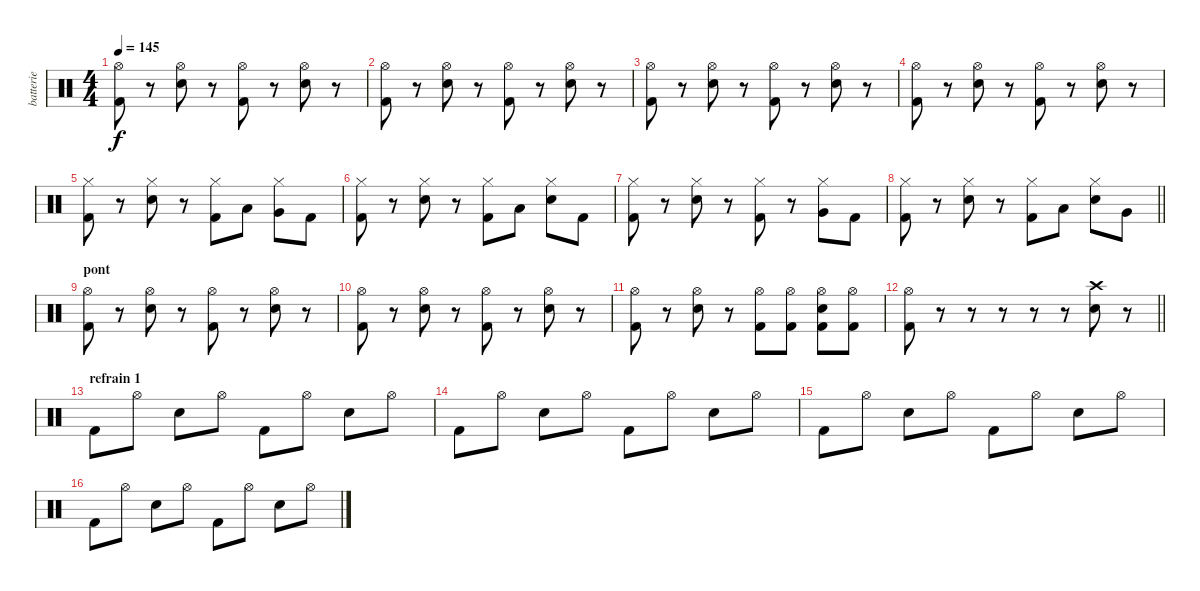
\track ("batterie" "batterie") {instrument percussion}
\staff {score}
\articulation defaults
\ts (4 4)
\tempo 145
\clef neutral
\ks c
("Hi-Hat (open)" "Kick (hit) 2").8{dy f} r.8 ("Hi-Hat (open)" "Electric Snare (hit)").8 r.8 ("Hi-Hat (open)" "Kick (hit) 2").8 r.8 ("Hi-Hat (open)" "Electric Snare (hit)").8 r.8 |
("Hi-Hat (open)" "Kick (hit) 2").8 r.8 ("Hi-Hat (open)" "Electric Snare (hit)").8 r.8 ("Hi-Hat (open)" "Kick (hit) 2").8 r.8 ("Hi-Hat (open)" "Electric Snare (hit)").8 r.8 |
("Hi-Hat (open)" "Kick (hit) 2").8 r.8 ("Hi-Hat (open)" "Electric Snare (hit)").8 r.8 ("Hi-Hat (open)" "Kick (hit) 2").8 r.8 ("Hi-Hat (open)" "Electric Snare (hit)").8 r.8 |
("Hi-Hat (open)" "Kick (hit) 2").8 r.8 ("Hi-Hat (open)" "Electric Snare (hit)").8 r.8 ("Hi-Hat (open)" "Kick (hit) 2").8 r.8 ("Hi-Hat (open)" "Electric Snare (hit)").8 r.8 |
("Hi-Hat (closed)" "Kick (hit) 2").8 r.8 ("Hi-Hat (closed)" "Electric Snare (hit)").8 r.8 ("Hi-Hat (closed)" "Kick (hit) 2").8 "Low Tom (hit)".8 ("Hi-Hat (closed)" "Very Low Tom (hit)").8 "Kick (hit) 2".8 |
("Hi-Hat (closed)" "Kick (hit) 2").8 r.8 ("Hi-Hat (closed)" "Electric Snare (hit)").8 r.8 ("Hi-Hat (closed)" "Kick (hit) 2").8 "Low Tom (hit)".8 ("Hi-Hat (closed)" "Electric Snare (hit)").8 "Kick (hit) 2".8 |
("Hi-Hat (closed)" "Kick (hit) 2").8 r.8 ("Hi-Hat (closed)" "Electric Snare (hit)").8 r.8 ("Hi-Hat (closed)" "Kick (hit) 2").8 r.8 ("Hi-Hat (closed)" "Very Low Tom (hit)").8 "Kick (hit) 2".8 |
\barLineRight lightlight
("Hi-Hat (closed)" "Kick (hit) 2").8 r.8 ("Hi-Hat (closed)" "Electric Snare (hit)").8 r.8 ("Hi-Hat (closed)" "Kick (hit) 2").8 "Low Tom (hit)".8 ("Hi-Hat (closed)" "Electric Snare (hit)").8 "Very Low Tom (hit)".8 |
\section ("" "pont")
("Hi-Hat (open)" "Kick (hit) 2").8 r.8 ("Hi-Hat (open)" "Electric Snare (hit)").8 r.8 ("Hi-Hat (open)" "Kick (hit) 2").8 r.8 ("Hi-Hat (open)" "Electric Snare (hit)").8 r.8 |
("Hi-Hat (open)" "Kick (hit) 2").8 r.8 ("Hi-Hat (open)" "Electric Snare (hit)").8 r.8 ("Hi-Hat (open)" "Kick (hit) 2").8 r.8 ("Hi-Hat (open)" "Electric Snare (hit)").8 r.8 |
("Hi-Hat (open)" "Kick (hit) 2").8 r.8 ("Hi-Hat (open)" "Electric Snare (hit)").8 r.8 ("Hi-Hat (open)" "Kick (hit) 2").8 ("Hi-Hat (open)" "Kick (hit) 2").8 ("Hi-Hat (open)" "Electric Snare (hit)" "Kick (hit) 2").8 ("Hi-Hat (open)" "Kick (hit) 2").8 |
\barLineRight lightlight
("Hi-Hat (open)" "Kick (hit) 2").8 r.8 r.8 r.8 r.8 r.8 ("Crash high (hit)" "Electric Snare (hit)").8 r.8 |
\section ("" "refrain 1")
"Kick (hit) 2".8 "Hi-Hat (open)".8 "Electric Snare (hit)".8 "Hi-Hat (open)".8 "Kick (hit) 2".8 "Hi-Hat (open)".8 "Electric Snare (hit)".8 "Hi-Hat (open)".8 |
"Kick (hit) 2".8 "Hi-Hat (open)".8 "Electric Snare (hit)".8 "Hi-Hat (open)".8 "Kick (hit) 2".8 "Hi-Hat (open)".8 "Electric Snare (hit)".8 "Hi-Hat (open)".8 |
"Kick (hit) 2".8 "Hi-Hat (open)".8 "Electric Snare (hit)".8 "Hi-Hat (open)".8 "Kick (hit) 2".8 "Hi-Hat (open)".8 "Electric Snare (hit)".8 "Hi-Hat (open)".8 |
"Kick (hit) 2".8 "Hi-Hat (open)".8 "Electric Snare (hit)".8 "Hi-Hat (open)".8 "Kick (hit) 2".8 "Hi-Hat (open)".8 "Electric Snare (hit)".8 "Hi-Hat (open)".8
